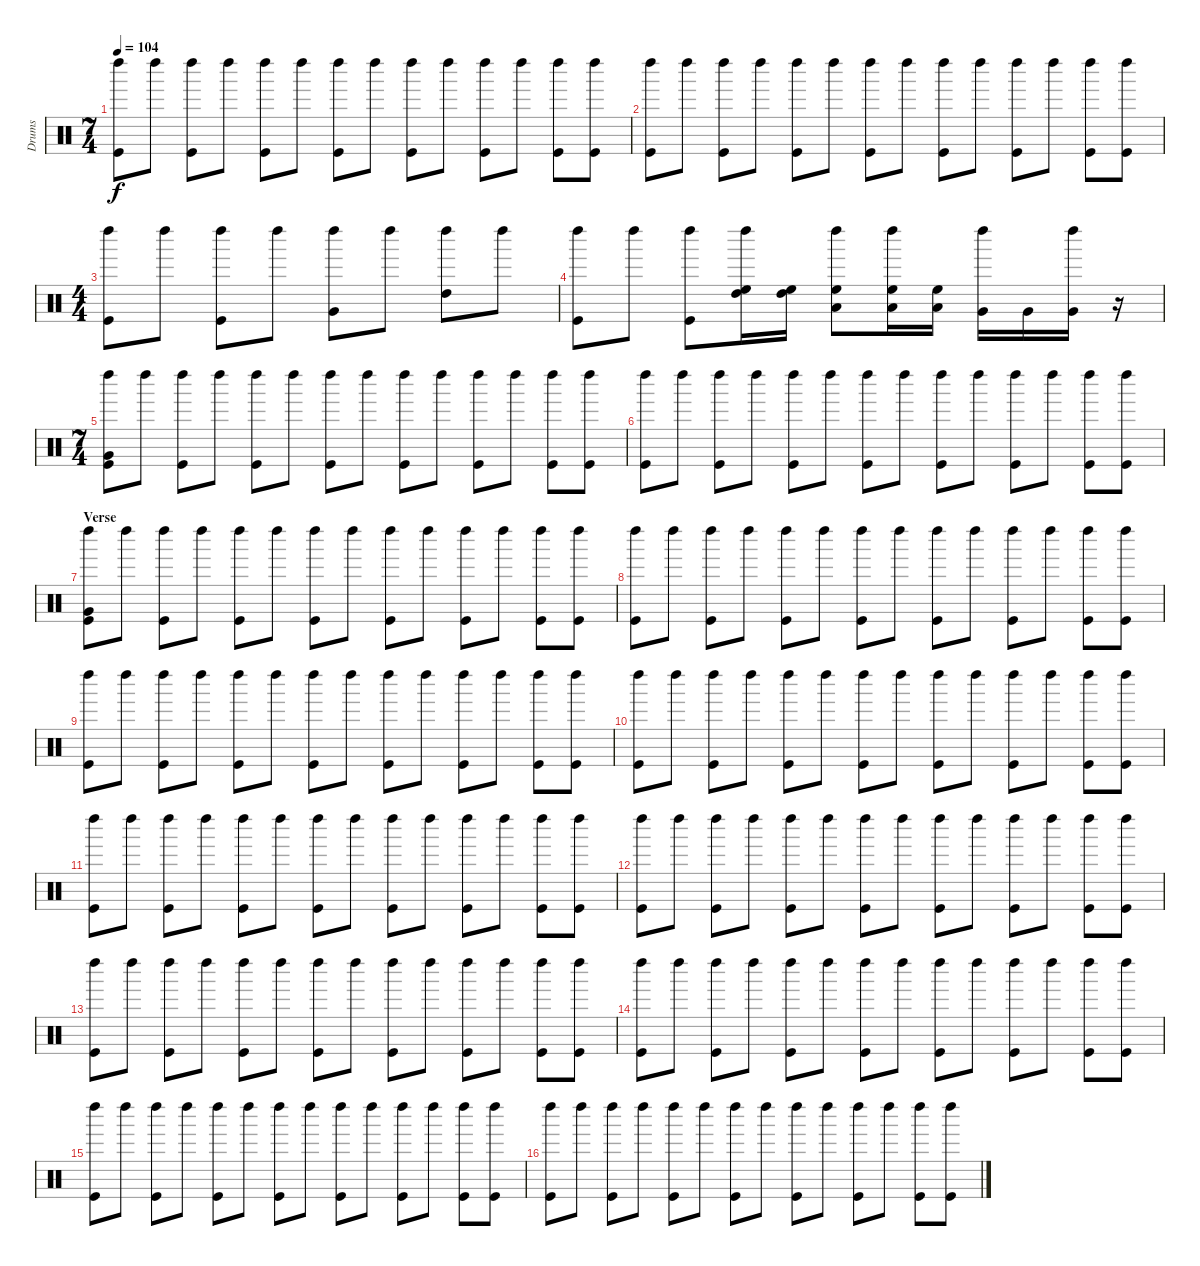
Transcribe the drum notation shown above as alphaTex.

\track ("Drums" "Drums") {instrument percussion}
\staff {score}
\articulation defaults
\ts (7 4)
\tempo 104
\clef neutral
\ks c
("Left Maraca (hit)" "Kick (hit)").8{dy f} "Left Maraca (hit)".8 ("Left Maraca (hit)" "Kick (hit)").8 "Left Maraca (hit)".8 ("Left Maraca (hit)" "Kick (hit)").8 "Left Maraca (hit)".8 ("Left Maraca (hit)" "Kick (hit)").8 "Left Maraca (hit)".8 ("Left Maraca (hit)" "Kick (hit)").8 "Left Maraca (hit)".8 ("Left Maraca (hit)" "Kick (hit)").8 "Left Maraca (hit)".8 ("Left Maraca (hit)" "Kick (hit)").8 ("Left Maraca (hit)" "Kick (hit)").8 |
("Left Maraca (hit)" "Kick (hit)").8 "Left Maraca (hit)".8 ("Left Maraca (hit)" "Kick (hit)").8 "Left Maraca (hit)".8 ("Left Maraca (hit)" "Kick (hit)").8 "Left Maraca (hit)".8 ("Left Maraca (hit)" "Kick (hit)").8 "Left Maraca (hit)".8 ("Left Maraca (hit)" "Kick (hit)").8 "Left Maraca (hit)".8 ("Left Maraca (hit)" "Kick (hit)").8 "Left Maraca (hit)".8 ("Left Maraca (hit)" "Kick (hit)").8 ("Left Maraca (hit)" "Kick (hit)").8 |
\ts (4 4)
("Left Maraca (hit)" "Kick (hit)").8 "Left Maraca (hit)".8 ("Left Maraca (hit)" "Kick (hit)").8 "Left Maraca (hit)".8 ("Left Maraca (hit)" "Very Low Tom (hit)").8 "Left Maraca (hit)".8 ("Left Maraca (hit)" "High Tom (hit)").8 "Left Maraca (hit)".8 |
("Left Maraca (hit)" "Kick (hit)").8 "Left Maraca (hit)".8 ("Left Maraca (hit)" "Kick (hit)").8 ("Left Maraca (hit)" "High Floor Tom (hit)" "High Tom (hit)").16 ("High Floor Tom (hit)" "High Tom (hit)").16 ("Left Maraca (hit)" "High Floor Tom (hit)" "Low Tom (hit)").8 ("Left Maraca (hit)" "High Floor Tom (hit)" "Low Tom (hit)").16 ("High Floor Tom (hit)" "Low Tom (hit)").16 ("Left Maraca (hit)" "Very Low Tom (hit)").16 "Very Low Tom (hit)".16 ("Left Maraca (hit)" "Very Low Tom (hit)").16 r.16 |
\ts (7 4)
("Left Maraca (hit)" "Very Low Tom (hit)" "Kick (hit)").8 "Left Maraca (hit)".8 ("Left Maraca (hit)" "Kick (hit)").8 "Left Maraca (hit)".8 ("Left Maraca (hit)" "Kick (hit)").8 "Left Maraca (hit)".8 ("Left Maraca (hit)" "Kick (hit)").8 "Left Maraca (hit)".8 ("Left Maraca (hit)" "Kick (hit)").8 "Left Maraca (hit)".8 ("Left Maraca (hit)" "Kick (hit)").8 "Left Maraca (hit)".8 ("Left Maraca (hit)" "Kick (hit)").8 ("Left Maraca (hit)" "Kick (hit)").8 |
("Left Maraca (hit)" "Kick (hit)").8 "Left Maraca (hit)".8 ("Left Maraca (hit)" "Kick (hit)").8 "Left Maraca (hit)".8 ("Left Maraca (hit)" "Kick (hit)").8 "Left Maraca (hit)".8 ("Left Maraca (hit)" "Kick (hit)").8 "Left Maraca (hit)".8 ("Left Maraca (hit)" "Kick (hit)").8 "Left Maraca (hit)".8 ("Left Maraca (hit)" "Kick (hit)").8 "Left Maraca (hit)".8 ("Left Maraca (hit)" "Kick (hit)").8 ("Left Maraca (hit)" "Kick (hit)").8 |
\section ("" "Verse")
("Left Maraca (hit)" "Very Low Tom (hit)" "Kick (hit)").8 "Left Maraca (hit)".8 ("Left Maraca (hit)" "Kick (hit)").8 "Left Maraca (hit)".8 ("Left Maraca (hit)" "Kick (hit)").8 "Left Maraca (hit)".8 ("Left Maraca (hit)" "Kick (hit)").8 "Left Maraca (hit)".8 ("Left Maraca (hit)" "Kick (hit)").8 "Left Maraca (hit)".8 ("Left Maraca (hit)" "Kick (hit)").8 "Left Maraca (hit)".8 ("Left Maraca (hit)" "Kick (hit)").8 ("Left Maraca (hit)" "Kick (hit)").8 |
("Left Maraca (hit)" "Kick (hit)").8 "Left Maraca (hit)".8 ("Left Maraca (hit)" "Kick (hit)").8 "Left Maraca (hit)".8 ("Left Maraca (hit)" "Kick (hit)").8 "Left Maraca (hit)".8 ("Left Maraca (hit)" "Kick (hit)").8 "Left Maraca (hit)".8 ("Left Maraca (hit)" "Kick (hit)").8 "Left Maraca (hit)".8 ("Left Maraca (hit)" "Kick (hit)").8 "Left Maraca (hit)".8 ("Left Maraca (hit)" "Kick (hit)").8 ("Left Maraca (hit)" "Kick (hit)").8 |
("Left Maraca (hit)" "Kick (hit)").8 "Left Maraca (hit)".8 ("Left Maraca (hit)" "Kick (hit)").8 "Left Maraca (hit)".8 ("Left Maraca (hit)" "Kick (hit)").8 "Left Maraca (hit)".8 ("Left Maraca (hit)" "Kick (hit)").8 "Left Maraca (hit)".8 ("Left Maraca (hit)" "Kick (hit)").8 "Left Maraca (hit)".8 ("Left Maraca (hit)" "Kick (hit)").8 "Left Maraca (hit)".8 ("Left Maraca (hit)" "Kick (hit)").8 ("Left Maraca (hit)" "Kick (hit)").8 |
("Left Maraca (hit)" "Kick (hit)").8 "Left Maraca (hit)".8 ("Left Maraca (hit)" "Kick (hit)").8 "Left Maraca (hit)".8 ("Left Maraca (hit)" "Kick (hit)").8 "Left Maraca (hit)".8 ("Left Maraca (hit)" "Kick (hit)").8 "Left Maraca (hit)".8 ("Left Maraca (hit)" "Kick (hit)").8 "Left Maraca (hit)".8 ("Left Maraca (hit)" "Kick (hit)").8 "Left Maraca (hit)".8 ("Left Maraca (hit)" "Kick (hit)").8 ("Left Maraca (hit)" "Kick (hit)").8 |
("Left Maraca (hit)" "Kick (hit)").8 "Left Maraca (hit)".8 ("Left Maraca (hit)" "Kick (hit)").8 "Left Maraca (hit)".8 ("Left Maraca (hit)" "Kick (hit)").8 "Left Maraca (hit)".8 ("Left Maraca (hit)" "Kick (hit)").8 "Left Maraca (hit)".8 ("Left Maraca (hit)" "Kick (hit)").8 "Left Maraca (hit)".8 ("Left Maraca (hit)" "Kick (hit)").8 "Left Maraca (hit)".8 ("Left Maraca (hit)" "Kick (hit)").8 ("Left Maraca (hit)" "Kick (hit)").8 |
("Left Maraca (hit)" "Kick (hit)").8 "Left Maraca (hit)".8 ("Left Maraca (hit)" "Kick (hit)").8 "Left Maraca (hit)".8 ("Left Maraca (hit)" "Kick (hit)").8 "Left Maraca (hit)".8 ("Left Maraca (hit)" "Kick (hit)").8 "Left Maraca (hit)".8 ("Left Maraca (hit)" "Kick (hit)").8 "Left Maraca (hit)".8 ("Left Maraca (hit)" "Kick (hit)").8 "Left Maraca (hit)".8 ("Left Maraca (hit)" "Kick (hit)").8 ("Left Maraca (hit)" "Kick (hit)").8 |
("Left Maraca (hit)" "Kick (hit)").8 "Left Maraca (hit)".8 ("Left Maraca (hit)" "Kick (hit)").8 "Left Maraca (hit)".8 ("Left Maraca (hit)" "Kick (hit)").8 "Left Maraca (hit)".8 ("Left Maraca (hit)" "Kick (hit)").8 "Left Maraca (hit)".8 ("Left Maraca (hit)" "Kick (hit)").8 "Left Maraca (hit)".8 ("Left Maraca (hit)" "Kick (hit)").8 "Left Maraca (hit)".8 ("Left Maraca (hit)" "Kick (hit)").8 ("Left Maraca (hit)" "Kick (hit)").8 |
("Left Maraca (hit)" "Kick (hit)").8 "Left Maraca (hit)".8 ("Left Maraca (hit)" "Kick (hit)").8 "Left Maraca (hit)".8 ("Left Maraca (hit)" "Kick (hit)").8 "Left Maraca (hit)".8 ("Left Maraca (hit)" "Kick (hit)").8 "Left Maraca (hit)".8 ("Left Maraca (hit)" "Kick (hit)").8 "Left Maraca (hit)".8 ("Left Maraca (hit)" "Kick (hit)").8 "Left Maraca (hit)".8 ("Left Maraca (hit)" "Kick (hit)").8 ("Left Maraca (hit)" "Kick (hit)").8 |
("Left Maraca (hit)" "Kick (hit)").8 "Left Maraca (hit)".8 ("Left Maraca (hit)" "Kick (hit)").8 "Left Maraca (hit)".8 ("Left Maraca (hit)" "Kick (hit)").8 "Left Maraca (hit)".8 ("Left Maraca (hit)" "Kick (hit)").8 "Left Maraca (hit)".8 ("Left Maraca (hit)" "Kick (hit)").8 "Left Maraca (hit)".8 ("Left Maraca (hit)" "Kick (hit)").8 "Left Maraca (hit)".8 ("Left Maraca (hit)" "Kick (hit)").8 ("Left Maraca (hit)" "Kick (hit)").8 |
("Left Maraca (hit)" "Kick (hit)").8 "Left Maraca (hit)".8 ("Left Maraca (hit)" "Kick (hit)").8 "Left Maraca (hit)".8 ("Left Maraca (hit)" "Kick (hit)").8 "Left Maraca (hit)".8 ("Left Maraca (hit)" "Kick (hit)").8 "Left Maraca (hit)".8 ("Left Maraca (hit)" "Kick (hit)").8 "Left Maraca (hit)".8 ("Left Maraca (hit)" "Kick (hit)").8 "Left Maraca (hit)".8 ("Left Maraca (hit)" "Kick (hit)").8 ("Left Maraca (hit)" "Kick (hit)").8
